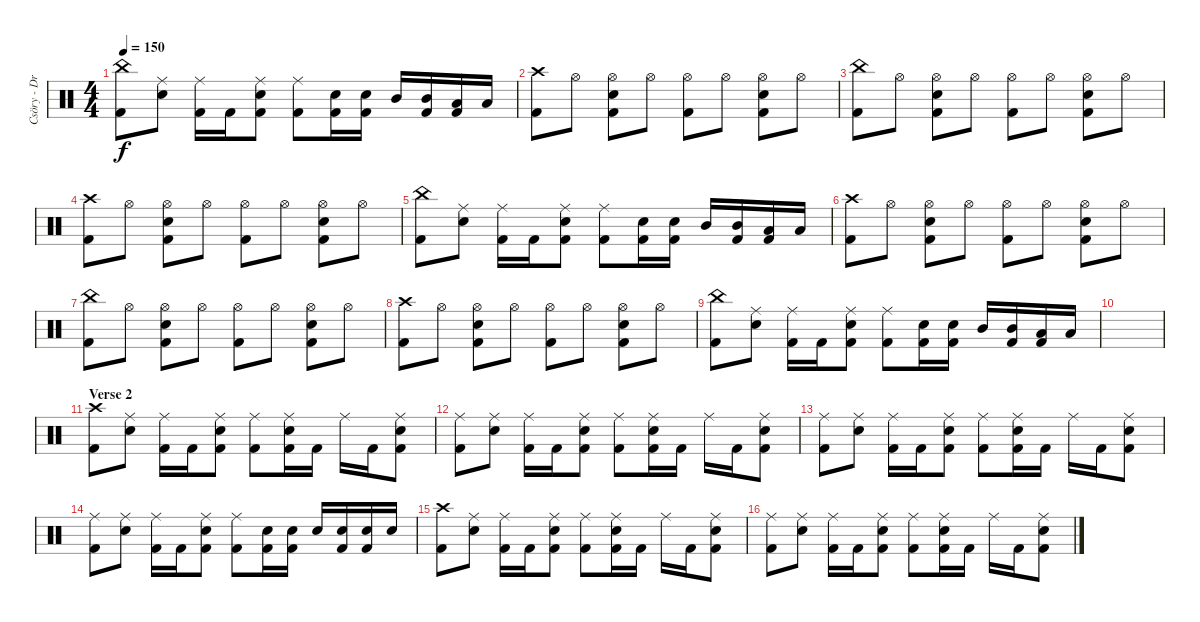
\track ("Csöry - DrumZ" "Csöry - Dr") {instrument percussion}
\staff {score}
\articulation defaults
\ts (4 4)
\tempo 150
\clef neutral
\ks c
("China (hit)" "Kick (hit) 2").8{dy f} ("Ride (middle)" "Snare (hit) 2").8 ("Ride (middle)" "Kick (hit) 2").16 "Kick (hit) 2".16 ("Ride (middle)" "Snare (hit) 2" "Kick (hit) 2").8 ("Ride (middle)" "Kick (hit) 2").8 ("Snare (hit) 2" "Kick (hit) 2").16 ("Snare (hit) 2" "Kick (hit) 2").16 "Mid Tom (hit)".16 ("Mid Tom (hit)" "Kick (hit) 2").16 ("Low Tom (hit)" "Kick (hit) 2").16 "Low Floor Tom (hit)".16 |
("Crash high (hit)" "Kick (hit) 2").8 "Hi-Hat (open)".8 ("Hi-Hat (open)" "Snare (hit) 2" "Kick (hit) 2").8 "Hi-Hat (open)".8 ("Hi-Hat (open)" "Kick (hit) 2").8 "Hi-Hat (open)".8 ("Hi-Hat (open)" "Snare (hit) 2" "Kick (hit) 2").8 "Hi-Hat (open)".8 |
("China (hit)" "Kick (hit) 2").8 "Hi-Hat (open)".8 ("Hi-Hat (open)" "Snare (hit) 2" "Kick (hit) 2").8 "Hi-Hat (open)".8 ("Hi-Hat (open)" "Kick (hit) 2").8 "Hi-Hat (open)".8 ("Hi-Hat (open)" "Snare (hit) 2" "Kick (hit) 2").8 "Hi-Hat (open)".8 |
("Crash high (hit)" "Kick (hit) 2").8 "Hi-Hat (open)".8 ("Hi-Hat (open)" "Snare (hit) 2" "Kick (hit) 2").8 "Hi-Hat (open)".8 ("Hi-Hat (open)" "Kick (hit) 2").8 "Hi-Hat (open)".8 ("Hi-Hat (open)" "Snare (hit) 2" "Kick (hit) 2").8 "Hi-Hat (open)".8 |
("China (hit)" "Kick (hit) 2").8 ("Ride (middle)" "Snare (hit) 2").8 ("Ride (middle)" "Kick (hit) 2").16 "Kick (hit) 2".16 ("Ride (middle)" "Snare (hit) 2" "Kick (hit) 2").8 ("Ride (middle)" "Kick (hit) 2").8 ("Snare (hit) 2" "Kick (hit) 2").16 ("Snare (hit) 2" "Kick (hit) 2").16 "Mid Tom (hit)".16 ("Mid Tom (hit)" "Kick (hit) 2").16 ("Low Tom (hit)" "Kick (hit) 2").16 "Low Floor Tom (hit)".16 |
("Crash high (hit)" "Kick (hit) 2").8 "Hi-Hat (open)".8 ("Hi-Hat (open)" "Snare (hit) 2" "Kick (hit) 2").8 "Hi-Hat (open)".8 ("Hi-Hat (open)" "Kick (hit) 2").8 "Hi-Hat (open)".8 ("Hi-Hat (open)" "Snare (hit) 2" "Kick (hit) 2").8 "Hi-Hat (open)".8 |
("China (hit)" "Kick (hit) 2").8 "Hi-Hat (open)".8 ("Hi-Hat (open)" "Snare (hit) 2" "Kick (hit) 2").8 "Hi-Hat (open)".8 ("Hi-Hat (open)" "Kick (hit) 2").8 "Hi-Hat (open)".8 ("Hi-Hat (open)" "Snare (hit) 2" "Kick (hit) 2").8 "Hi-Hat (open)".8 |
("Crash high (hit)" "Kick (hit) 2").8 "Hi-Hat (open)".8 ("Hi-Hat (open)" "Snare (hit) 2" "Kick (hit) 2").8 "Hi-Hat (open)".8 ("Hi-Hat (open)" "Kick (hit) 2").8 "Hi-Hat (open)".8 ("Hi-Hat (open)" "Snare (hit) 2" "Kick (hit) 2").8 "Hi-Hat (open)".8 |
("China (hit)" "Kick (hit) 2").8 ("Ride (middle)" "Snare (hit) 2").8 ("Ride (middle)" "Kick (hit) 2").16 "Kick (hit) 2".16 ("Ride (middle)" "Snare (hit) 2" "Kick (hit) 2").8 ("Ride (middle)" "Kick (hit) 2").8 ("Snare (hit) 2" "Kick (hit) 2").16 ("Snare (hit) 2" "Kick (hit) 2").16 "Mid Tom (hit)".16 ("Mid Tom (hit)" "Kick (hit) 2").16 ("Low Tom (hit)" "Kick (hit) 2").16 "Low Floor Tom (hit)".16 |
|
\section ("" "Verse 2")
("Crash high (hit)" "Kick (hit) 2").8 ("Ride (middle)" "Snare (hit) 2").8 ("Ride (middle)" "Kick (hit) 2").16 "Kick (hit) 2".16 ("Ride (middle)" "Snare (hit) 2" "Kick (hit) 2").8 ("Ride (middle)" "Kick (hit) 2").8 ("Ride (middle)" "Snare (hit) 2" "Kick (hit) 2").16 "Kick (hit) 2".16 "Ride (middle)".16 "Kick (hit) 2".16 ("Ride (middle)" "Snare (hit) 2" "Kick (hit) 2").8 |
("Ride (middle)" "Kick (hit) 2").8 ("Ride (middle)" "Snare (hit) 2").8 ("Ride (middle)" "Kick (hit) 2").16 "Kick (hit) 2".16 ("Ride (middle)" "Snare (hit) 2" "Kick (hit) 2").8 ("Ride (middle)" "Kick (hit) 2").8 ("Ride (middle)" "Snare (hit) 2" "Kick (hit) 2").16 "Kick (hit) 2".16 "Ride (middle)".16 "Kick (hit) 2".16 ("Ride (middle)" "Snare (hit) 2" "Kick (hit) 2").8 |
("Ride (middle)" "Kick (hit) 2").8 ("Ride (middle)" "Snare (hit) 2").8 ("Ride (middle)" "Kick (hit) 2").16 "Kick (hit) 2".16 ("Ride (middle)" "Snare (hit) 2" "Kick (hit) 2").8 ("Ride (middle)" "Kick (hit) 2").8 ("Ride (middle)" "Snare (hit) 2" "Kick (hit) 2").16 "Kick (hit) 2".16 "Ride (middle)".16 "Kick (hit) 2".16 ("Ride (middle)" "Snare (hit) 2" "Kick (hit) 2").8 |
("Ride (middle)" "Kick (hit) 2").8 ("Ride (middle)" "Snare (hit) 2").8 ("Ride (middle)" "Kick (hit) 2").16 "Kick (hit) 2".16 ("Ride (middle)" "Snare (hit) 2" "Kick (hit) 2").8 ("Ride (middle)" "Kick (hit) 2").8 ("Snare (hit) 2" "Kick (hit) 2").16 ("Snare (hit) 2" "Kick (hit) 2").16 "Snare (hit) 2".16 ("Snare (hit) 2" "Kick (hit) 2").16 ("Snare (hit) 2" "Kick (hit) 2").16 "Snare (hit) 2".16 |
("Crash high (hit)" "Kick (hit) 2").8 ("Ride (middle)" "Snare (hit) 2").8 ("Ride (middle)" "Kick (hit) 2").16 "Kick (hit) 2".16 ("Ride (middle)" "Snare (hit) 2" "Kick (hit) 2").8 ("Ride (middle)" "Kick (hit) 2").8 ("Ride (middle)" "Snare (hit) 2" "Kick (hit) 2").16 "Kick (hit) 2".16 "Ride (middle)".16 "Kick (hit) 2".16 ("Ride (middle)" "Snare (hit) 2" "Kick (hit) 2").8 |
("Ride (middle)" "Kick (hit) 2").8 ("Ride (middle)" "Snare (hit) 2").8 ("Ride (middle)" "Kick (hit) 2").16 "Kick (hit) 2".16 ("Ride (middle)" "Snare (hit) 2" "Kick (hit) 2").8 ("Ride (middle)" "Kick (hit) 2").8 ("Ride (middle)" "Snare (hit) 2" "Kick (hit) 2").16 "Kick (hit) 2".16 "Ride (middle)".16 "Kick (hit) 2".16 ("Ride (middle)" "Snare (hit) 2" "Kick (hit) 2").8
